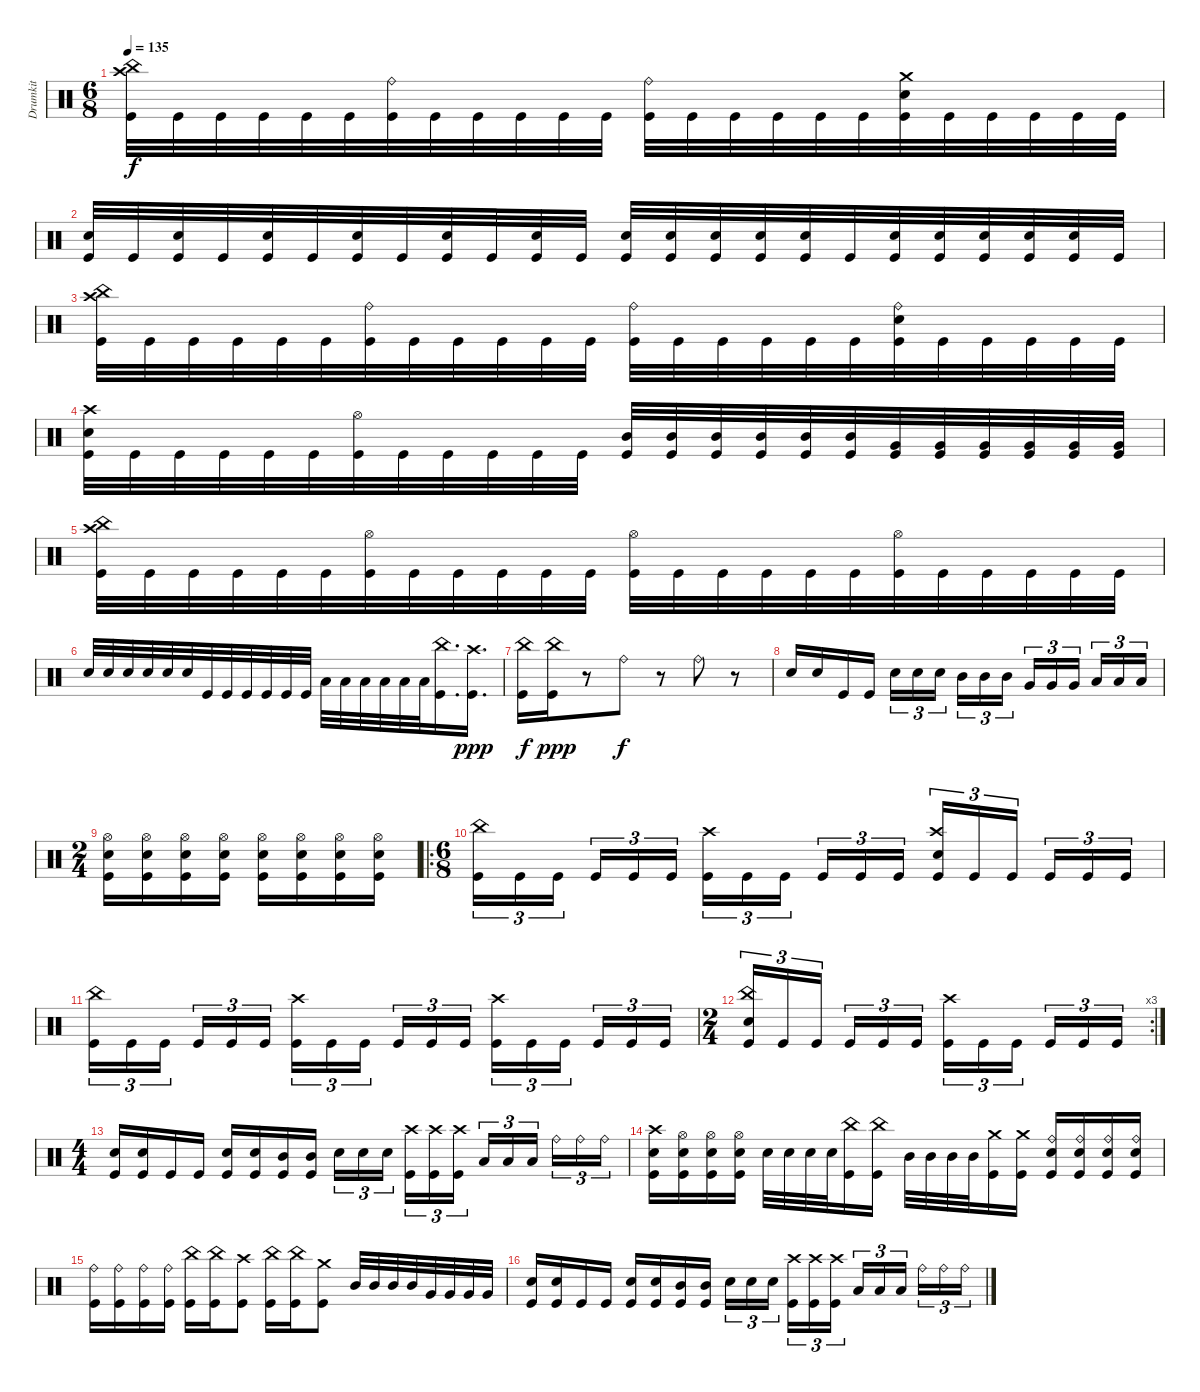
\track ("Drumkit" "Drumkit") {mute instrument percussion}
\staff {score}
\articulation defaults
\ts (6 8)
\tempo 135
\clef neutral
\ks c
("Kick (hit)" "China (hit)" "Crash high (hit)").32{dy f} "Kick (hit)".32 "Kick (hit)".32 "Kick (hit)".32 "Kick (hit)".32 "Kick (hit)".32 ("Kick (hit)" "Ride (bell)").32 "Kick (hit)".32 "Kick (hit)".32 "Kick (hit)".32 "Kick (hit)".32 "Kick (hit)".32 ("Kick (hit)" "Ride (bell)").32 "Kick (hit)".32 "Kick (hit)".32 "Kick (hit)".32 "Kick (hit)".32 "Kick (hit)".32 ("Kick (hit)" "Crash medium (hit)" "Snare (hit) 2").32 "Kick (hit)".32 "Kick (hit)".32 "Kick (hit)".32 "Kick (hit)".32 "Kick (hit)".32 |
("Kick (hit)" "Snare (hit) 2").32 "Kick (hit)".32 ("Kick (hit)" "Snare (hit) 2").32 "Kick (hit)".32 ("Kick (hit)" "Snare (hit) 2").32 "Kick (hit)".32 ("Kick (hit)" "Snare (hit) 2").32 "Kick (hit)".32 ("Kick (hit)" "Snare (hit) 2").32 "Kick (hit)".32 ("Kick (hit)" "Snare (hit) 2").32 "Kick (hit)".32 ("Kick (hit)" "Snare (hit) 2").32 ("Kick (hit)" "Snare (hit) 2").32 ("Kick (hit)" "Snare (hit) 2").32 ("Kick (hit)" "Snare (hit) 2").32 ("Kick (hit)" "Snare (hit) 2").32 "Kick (hit)".32 ("Kick (hit)" "Snare (hit) 2").32 ("Kick (hit)" "Snare (hit) 2").32 ("Kick (hit)" "Snare (hit) 2").32 ("Kick (hit)" "Snare (hit) 2").32 ("Kick (hit)" "Snare (hit) 2").32 "Kick (hit)".32 |
("Kick (hit)" "China (hit)" "Crash high (hit)").32 "Kick (hit)".32 "Kick (hit)".32 "Kick (hit)".32 "Kick (hit)".32 "Kick (hit)".32 ("Kick (hit)" "Ride (bell)").32 "Kick (hit)".32 "Kick (hit)".32 "Kick (hit)".32 "Kick (hit)".32 "Kick (hit)".32 ("Kick (hit)" "Ride (bell)").32 "Kick (hit)".32 "Kick (hit)".32 "Kick (hit)".32 "Kick (hit)".32 "Kick (hit)".32 ("Kick (hit)" "Ride (bell)" "Snare (hit) 2").32 "Kick (hit)".32 "Kick (hit)".32 "Kick (hit)".32 "Kick (hit)".32 "Kick (hit)".32 |
("Kick (hit)" "Snare (hit) 2" "Crash high (hit)").32 "Kick (hit)".32 "Kick (hit)".32 "Kick (hit)".32 "Kick (hit)".32 "Kick (hit)".32 ("Kick (hit)" "Hi-Hat (open)").32 "Kick (hit)".32 "Kick (hit)".32 "Kick (hit)".32 "Kick (hit)".32 "Kick (hit)".32 ("Kick (hit)" "Mid Tom (hit)").32 ("Kick (hit)" "Mid Tom (hit)").32 ("Kick (hit)" "Mid Tom (hit)").32 ("Kick (hit)" "Mid Tom (hit)").32 ("Kick (hit)" "Mid Tom (hit)").32 ("Kick (hit)" "Mid Tom (hit)").32 ("Kick (hit)" "Very Low Tom (hit)").32 ("Kick (hit)" "Very Low Tom (hit)").32 ("Kick (hit)" "Very Low Tom (hit)").32 ("Kick (hit)" "Very Low Tom (hit)").32 ("Kick (hit)" "Very Low Tom (hit)").32 ("Kick (hit)" "Very Low Tom (hit)").32 |
("Kick (hit)" "China (hit)" "Crash high (hit)").32 "Kick (hit)".32 "Kick (hit)".32 "Kick (hit)".32 "Kick (hit)".32 "Kick (hit)".32 ("Kick (hit)" "Hi-Hat (open)").32 "Kick (hit)".32 "Kick (hit)".32 "Kick (hit)".32 "Kick (hit)".32 "Kick (hit)".32 ("Kick (hit)" "Hi-Hat (open)").32 "Kick (hit)".32 "Kick (hit)".32 "Kick (hit)".32 "Kick (hit)".32 "Kick (hit)".32 ("Kick (hit)" "Hi-Hat (open)").32 "Kick (hit)".32 "Kick (hit)".32 "Kick (hit)".32 "Kick (hit)".32 "Kick (hit)".32 |
"Snare (hit) 2".32 "Snare (hit) 2".32 "Snare (hit) 2".32 "Snare (hit) 2".32 "Snare (hit) 2".32 "Snare (hit) 2".32 "Kick (hit)".32 "Kick (hit)".32 "Kick (hit)".32 "Kick (hit)".32 "Kick (hit)".32 "Kick (hit)".32 "Low Tom (hit)".32 "Low Tom (hit)".32 "Low Tom (hit)".32 "Low Tom (hit)".32 "Low Tom (hit)".32 "Low Tom (hit)".32 ("Kick (hit)" "China (hit)").16{d} ("Kick (hit)" "Crash high (hit)").16{d dy ppp} |
("Kick (hit)" "China (hit)").16{dy f} ("Kick (hit)" "China (hit)").16{dy ppp} r.8 "Ride (bell)".8{dy f} r.8 "Ride (bell)".8 r.8 |
"Snare (hit) 2".16 "Snare (hit) 2".16 "Kick (hit)".16 "Kick (hit)".16{beam splitsecondary} "Snare (hit) 2".16{tu (3 2)} "Snare (hit) 2".16{tu (3 2)} "Snare (hit) 2".16{tu (3 2)} "Mid Tom (hit)".16{tu (3 2)} "Mid Tom (hit)".16{tu (3 2)} "Mid Tom (hit)".16{tu (3 2) beam splitsecondary} "Very Low Tom (hit)".16{tu (3 2)} "Very Low Tom (hit)".16{tu (3 2)} "Very Low Tom (hit)".16{tu (3 2) beam splitsecondary} "Low Floor Tom (hit)".16{tu (3 2)} "Low Floor Tom (hit)".16{tu (3 2)} "Low Floor Tom (hit)".16{tu (3 2)} |
\ts (2 4)
("Kick (hit)" "Snare (hit) 2" "Hi-Hat (open)").16 ("Kick (hit)" "Snare (hit) 2" "Hi-Hat (open)").16 ("Kick (hit)" "Snare (hit) 2" "Hi-Hat (open)").16 ("Kick (hit)" "Snare (hit) 2" "Hi-Hat (open)").16 ("Kick (hit)" "Snare (hit) 2" "Hi-Hat (open)").16 ("Kick (hit)" "Snare (hit) 2" "Hi-Hat (open)").16 ("Kick (hit)" "Snare (hit) 2" "Hi-Hat (open)").16 ("Kick (hit)" "Snare (hit) 2" "Hi-Hat (open)").16 |
\ro
\ts (6 8)
("Kick (hit)" "China (hit)").16{tu (3 2)} "Kick (hit)".16{tu (3 2)} "Kick (hit)".16{tu (3 2) beam splitsecondary} "Kick (hit)".16{tu (3 2)} "Kick (hit)".16{tu (3 2)} "Kick (hit)".16{tu (3 2) beam splitsecondary} ("Kick (hit)" "Crash high (hit)").16{tu (3 2)} "Kick (hit)".16{tu (3 2)} "Kick (hit)".16{tu (3 2)} "Kick (hit)".16{tu (3 2)} "Kick (hit)".16{tu (3 2)} "Kick (hit)".16{tu (3 2) beam splitsecondary} ("Kick (hit)" "Snare (hit) 2" "Crash high (hit)").16{tu (3 2)} "Kick (hit)".16{tu (3 2)} "Kick (hit)".16{tu (3 2) beam splitsecondary} "Kick (hit)".16{tu (3 2)} "Kick (hit)".16{tu (3 2)} "Kick (hit)".16{tu (3 2)} |
("Kick (hit)" "China (hit)").16{tu (3 2)} "Kick (hit)".16{tu (3 2)} "Kick (hit)".16{tu (3 2) beam splitsecondary} "Kick (hit)".16{tu (3 2)} "Kick (hit)".16{tu (3 2)} "Kick (hit)".16{tu (3 2) beam splitsecondary} ("Kick (hit)" "Crash high (hit)").16{tu (3 2)} "Kick (hit)".16{tu (3 2)} "Kick (hit)".16{tu (3 2)} "Kick (hit)".16{tu (3 2)} "Kick (hit)".16{tu (3 2)} "Kick (hit)".16{tu (3 2) beam splitsecondary} ("Kick (hit)" "Crash high (hit)").16{tu (3 2)} "Kick (hit)".16{tu (3 2)} "Kick (hit)".16{tu (3 2) beam splitsecondary} "Kick (hit)".16{tu (3 2)} "Kick (hit)".16{tu (3 2)} "Kick (hit)".16{tu (3 2)} |
\rc 3
\ts (2 4)
("Kick (hit)" "China (hit)" "Snare (hit) 2").16{tu (3 2)} "Kick (hit)".16{tu (3 2)} "Kick (hit)".16{tu (3 2) beam splitsecondary} "Kick (hit)".16{tu (3 2)} "Kick (hit)".16{tu (3 2)} "Kick (hit)".16{tu (3 2)} ("Kick (hit)" "Crash high (hit)").16{tu (3 2)} "Kick (hit)".16{tu (3 2)} "Kick (hit)".16{tu (3 2) beam splitsecondary} "Kick (hit)".16{tu (3 2)} "Kick (hit)".16{tu (3 2)} "Kick (hit)".16{tu (3 2)} |
\ts (4 4)
("Snare (hit) 2" "Kick (hit)").16 ("Snare (hit) 2" "Kick (hit)").16 "Kick (hit)".16 "Kick (hit)".16 ("Snare (hit) 2" "Kick (hit)").16 ("Snare (hit) 2" "Kick (hit)").16 ("Mid Tom (hit)" "Kick (hit)").16 ("Mid Tom (hit)" "Kick (hit)").16 "Snare (hit) 2".16{tu (3 2)} "Snare (hit) 2".16{tu (3 2)} "Snare (hit) 2".16{tu (3 2) beam splitsecondary} ("Kick (hit)" "Crash high (hit)").16{tu (3 2)} ("Kick (hit)" "Crash high (hit)").16{tu (3 2)} ("Kick (hit)" "Crash high (hit)").16{tu (3 2)} "Low Tom (hit)".16{tu (3 2)} "Low Tom (hit)".16{tu (3 2)} "Low Tom (hit)".16{tu (3 2) beam splitsecondary} "Ride (bell)".16{tu (3 2)} "Ride (bell)".16{tu (3 2)} "Ride (bell)".16{tu (3 2)} |
("Kick (hit)" "Snare (hit) 2" "Crash high (hit)").16 ("Kick (hit)" "Snare (hit) 2" "Hi-Hat (open)").16 ("Kick (hit)" "Snare (hit) 2" "Hi-Hat (open)").16 ("Kick (hit)" "Snare (hit) 2" "Hi-Hat (open)").16 "Snare (hit) 2".32 "Snare (hit) 2".32 "Snare (hit) 2".32 "Snare (hit) 2".32 ("Kick (hit)" "China (hit)").16 ("Kick (hit)" "China (hit)").16 "Mid Tom (hit)".32 "Mid Tom (hit)".32 "Mid Tom (hit)".32 "Mid Tom (hit)".32 ("Kick (hit)" "Crash medium (hit)").16 ("Kick (hit)" "Crash medium (hit)").16 ("Kick (hit)" "Snare (hit) 2" "Ride (bell)").16 ("Kick (hit)" "Snare (hit) 2" "Ride (bell)").16 ("Kick (hit)" "Snare (hit) 2" "Ride (bell)").16 ("Kick (hit)" "Snare (hit) 2" "Ride (bell)").16 |
("Kick (hit)" "Ride (bell)").16 ("Kick (hit)" "Ride (bell)").16 ("Kick (hit)" "Ride (bell)").16 ("Kick (hit)" "Ride (bell)").16 ("Kick (hit)" "China (hit)").16 ("Kick (hit)" "China (hit)").16 ("Kick (hit)" "Crash high (hit)").8 ("Kick (hit)" "China (hit)").16 ("Kick (hit)" "China (hit)").16 ("Kick (hit)" "Crash medium (hit)").8 "Mid Tom (hit)".32 "Mid Tom (hit)".32 "Mid Tom (hit)".32 "Mid Tom (hit)".32 "Very Low Tom (hit)".32 "Very Low Tom (hit)".32 "Very Low Tom (hit)".32 "Very Low Tom (hit)".32 |
("Snare (hit) 2" "Kick (hit)").16 ("Snare (hit) 2" "Kick (hit)").16 "Kick (hit)".16 "Kick (hit)".16 ("Snare (hit) 2" "Kick (hit)").16 ("Snare (hit) 2" "Kick (hit)").16 ("Mid Tom (hit)" "Kick (hit)").16 ("Mid Tom (hit)" "Kick (hit)").16 "Snare (hit) 2".16{tu (3 2)} "Snare (hit) 2".16{tu (3 2)} "Snare (hit) 2".16{tu (3 2) beam splitsecondary} ("Kick (hit)" "Crash high (hit)").16{tu (3 2)} ("Kick (hit)" "Crash high (hit)").16{tu (3 2)} ("Kick (hit)" "Crash high (hit)").16{tu (3 2)} "Low Tom (hit)".16{tu (3 2)} "Low Tom (hit)".16{tu (3 2)} "Low Tom (hit)".16{tu (3 2) beam splitsecondary} "Ride (bell)".16{tu (3 2)} "Ride (bell)".16{tu (3 2)} "Ride (bell)".16{tu (3 2)}
